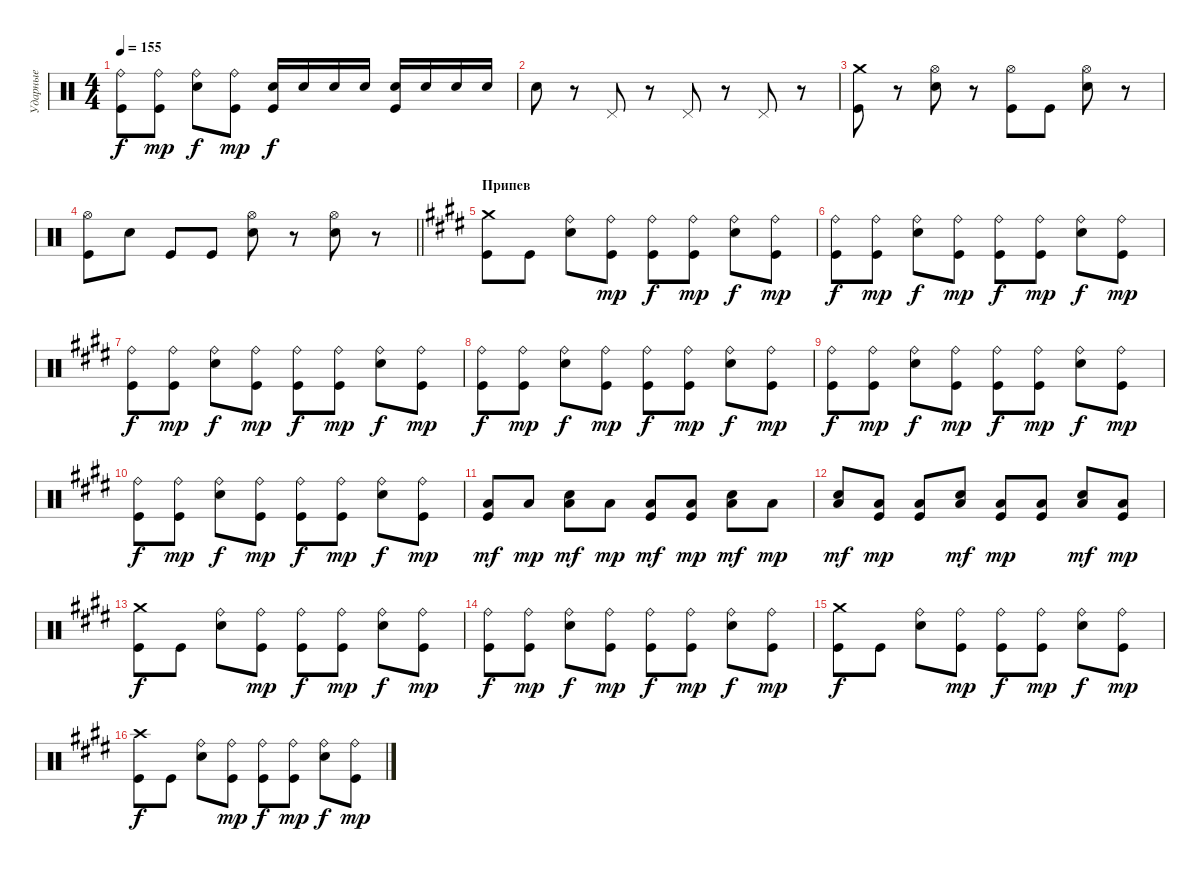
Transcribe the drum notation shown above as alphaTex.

\track ("Ударные" "Ударные") {instrument percussion}
\staff {score}
\articulation defaults
\ts (4 4)
\tempo 155
\clef neutral
\ks c
("Ride (bell)" "Kick (hit)").8{dy f} ("Ride (bell)" "Kick (hit)").8{dy mp} ("Ride (bell)" "Electric Snare (hit)").8{dy f} ("Ride (bell)" "Kick (hit)").8{dy mp} ("Electric Snare (hit)" "Kick (hit)").16{dy f} "Electric Snare (hit)".16 "Electric Snare (hit)".16 "Electric Snare (hit)".16 ("Electric Snare (hit)" "Kick (hit)").16 "Electric Snare (hit)".16 "Electric Snare (hit)".16 "Electric Snare (hit)".16 |
"Electric Snare (hit)".8 r.8 "Pedal Hi-Hat (hit)".8 r.8 "Pedal Hi-Hat (hit)".8 r.8 "Pedal Hi-Hat (hit)".8 r.8 |
("Crash medium (hit)" "Kick (hit)").8 r.8 ("Hi-Hat (open)" "Electric Snare (hit)").8 r.8 ("Hi-Hat (open)" "Kick (hit)").8 "Kick (hit)".8 ("Hi-Hat (open)" "Electric Snare (hit)").8 r.8 |
\barLineRight lightlight
("Hi-Hat (open)" "Kick (hit)").8 "Electric Snare (hit)".8 "Kick (hit)".8 "Kick (hit)".8 ("Hi-Hat (open)" "Electric Snare (hit)").8 r.8 ("Hi-Hat (open)" "Electric Snare (hit)").8 r.8 |
\section ("" "Припев")
\ks e
("Crash medium (hit)" "Kick (hit)").8 "Kick (hit)".8 ("Ride (bell)" "Electric Snare (hit)").8 ("Ride (bell)" "Kick (hit)").8{dy mp} ("Ride (bell)" "Kick (hit)").8{dy f} ("Ride (bell)" "Kick (hit)").8{dy mp} ("Ride (bell)" "Electric Snare (hit)").8{dy f} ("Ride (bell)" "Kick (hit)").8{dy mp} |
("Ride (bell)" "Kick (hit)").8{dy f} ("Ride (bell)" "Kick (hit)").8{dy mp} ("Ride (bell)" "Electric Snare (hit)").8{dy f} ("Ride (bell)" "Kick (hit)").8{dy mp} ("Ride (bell)" "Kick (hit)").8{dy f} ("Ride (bell)" "Kick (hit)").8{dy mp} ("Ride (bell)" "Electric Snare (hit)").8{dy f} ("Ride (bell)" "Kick (hit)").8{dy mp} |
("Ride (bell)" "Kick (hit)").8{dy f} ("Ride (bell)" "Kick (hit)").8{dy mp} ("Ride (bell)" "Electric Snare (hit)").8{dy f} ("Ride (bell)" "Kick (hit)").8{dy mp} ("Ride (bell)" "Kick (hit)").8{dy f} ("Ride (bell)" "Kick (hit)").8{dy mp} ("Ride (bell)" "Electric Snare (hit)").8{dy f} ("Ride (bell)" "Kick (hit)").8{dy mp} |
("Ride (bell)" "Kick (hit)").8{dy f} ("Ride (bell)" "Kick (hit)").8{dy mp} ("Ride (bell)" "Electric Snare (hit)").8{dy f} ("Ride (bell)" "Kick (hit)").8{dy mp} ("Ride (bell)" "Kick (hit)").8{dy f} ("Ride (bell)" "Kick (hit)").8{dy mp} ("Ride (bell)" "Electric Snare (hit)").8{dy f} ("Ride (bell)" "Kick (hit)").8{dy mp} |
("Ride (bell)" "Kick (hit)").8{dy f} ("Ride (bell)" "Kick (hit)").8{dy mp} ("Ride (bell)" "Electric Snare (hit)").8{dy f} ("Ride (bell)" "Kick (hit)").8{dy mp} ("Ride (bell)" "Kick (hit)").8{dy f} ("Ride (bell)" "Kick (hit)").8{dy mp} ("Ride (bell)" "Electric Snare (hit)").8{dy f} ("Ride (bell)" "Kick (hit)").8{dy mp} |
("Ride (bell)" "Kick (hit)").8{dy f} ("Ride (bell)" "Kick (hit)").8{dy mp} ("Ride (bell)" "Electric Snare (hit)").8{dy f} ("Ride (bell)" "Kick (hit)").8{dy mp} ("Ride (bell)" "Kick (hit)").8{dy f} ("Ride (bell)" "Kick (hit)").8{dy mp} ("Ride (bell)" "Electric Snare (hit)").8{dy f} ("Ride (bell)" "Kick (hit)").8{dy mp} |
("Low Tom (hit)" "Kick (hit)").8{dy mf} "Low Tom (hit)".8{dy mp} ("Low Tom (hit)" "Electric Snare (hit)").8{dy mf} "Low Tom (hit)".8{dy mp} ("Low Tom (hit)" "Kick (hit)").8{dy mf} ("Low Tom (hit)" "Kick (hit)").8{dy mp} ("Low Tom (hit)" "Electric Snare (hit)").8{dy mf} "Low Tom (hit)".8{dy mp} |
("Low Tom (hit)" "Electric Snare (hit)").8{dy mf} ("Low Tom (hit)" "Kick (hit)").8{dy mp} ("Low Tom (hit)" "Kick (hit)").8 ("Low Tom (hit)" "Electric Snare (hit)").8{dy mf} ("Low Tom (hit)" "Kick (hit)").8{dy mp} ("Low Tom (hit)" "Kick (hit)").8 ("Low Tom (hit)" "Electric Snare (hit)").8{dy mf} ("Low Tom (hit)" "Kick (hit)").8{dy mp} |
("Crash medium (hit)" "Kick (hit)").8{dy f} "Kick (hit)".8 ("Ride (bell)" "Electric Snare (hit)").8 ("Ride (bell)" "Kick (hit)").8{dy mp} ("Ride (bell)" "Kick (hit)").8{dy f} ("Ride (bell)" "Kick (hit)").8{dy mp} ("Ride (bell)" "Electric Snare (hit)").8{dy f} ("Ride (bell)" "Kick (hit)").8{dy mp} |
("Ride (bell)" "Kick (hit)").8{dy f} ("Ride (bell)" "Kick (hit)").8{dy mp} ("Ride (bell)" "Electric Snare (hit)").8{dy f} ("Ride (bell)" "Kick (hit)").8{dy mp} ("Ride (bell)" "Kick (hit)").8{dy f} ("Ride (bell)" "Kick (hit)").8{dy mp} ("Ride (bell)" "Electric Snare (hit)").8{dy f} ("Ride (bell)" "Kick (hit)").8{dy mp} |
("Crash medium (hit)" "Kick (hit)").8{dy f} "Kick (hit)".8 ("Ride (bell)" "Electric Snare (hit)").8 ("Ride (bell)" "Kick (hit)").8{dy mp} ("Ride (bell)" "Kick (hit)").8{dy f} ("Ride (bell)" "Kick (hit)").8{dy mp} ("Ride (bell)" "Electric Snare (hit)").8{dy f} ("Ride (bell)" "Kick (hit)").8{dy mp} |
("Crash high (hit)" "Kick (hit)").8{dy f} "Kick (hit)".8 ("Ride (bell)" "Electric Snare (hit)").8 ("Ride (bell)" "Kick (hit)").8{dy mp} ("Ride (bell)" "Kick (hit)").8{dy f} ("Ride (bell)" "Kick (hit)").8{dy mp} ("Ride (bell)" "Electric Snare (hit)").8{dy f} ("Ride (bell)" "Kick (hit)").8{dy mp}
